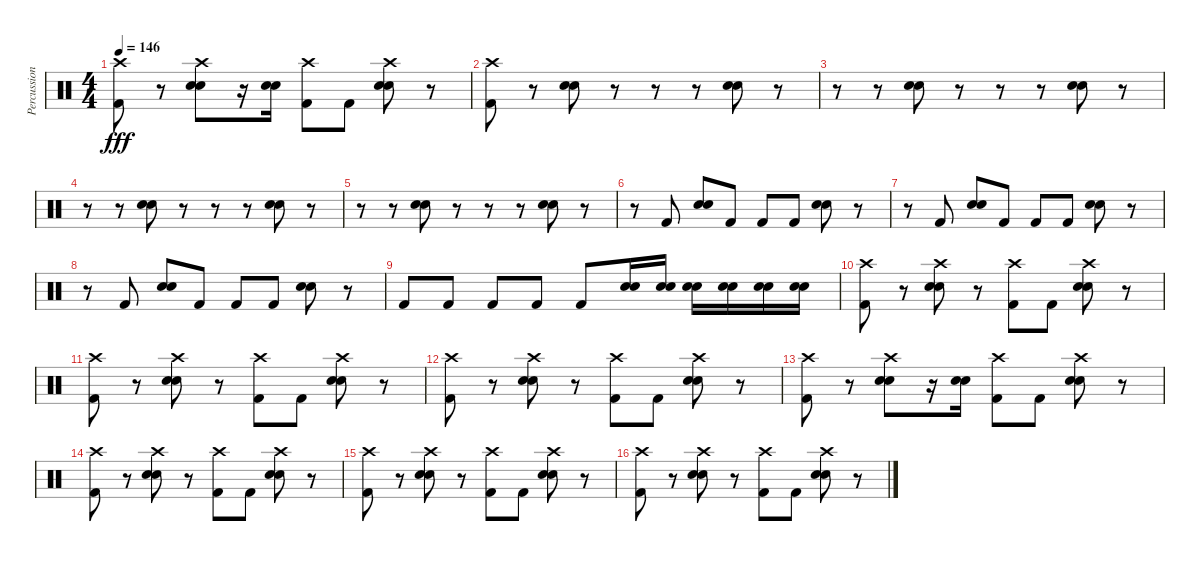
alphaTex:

\track ("Percussion" "Percussion") {instrument percussion}
\staff {score}
\articulation defaults
\ts (4 4)
\tempo 146
\clef neutral
\ks c
("Crash high (hit)" "Kick (hit) 2").8{dy fff} r.8 ("Crash high (hit)" "Electric Snare (hit)" "Snare (hit) 2").8 r.16 ("Electric Snare (hit)" "Snare (hit) 2").16 ("Crash high (hit)" "Kick (hit) 2").8 "Kick (hit) 2".8 ("Crash high (hit)" "Electric Snare (hit)" "Snare (hit) 2").8 r.8 |
("Kick (hit) 2" "Crash high (hit)").8 r.8 ("Electric Snare (hit)" "Snare (hit) 2").8 r.8 r.8 r.8 ("Electric Snare (hit)" "Snare (hit) 2").8 r.8 |
r.8 r.8 ("Electric Snare (hit)" "Snare (hit) 2").8 r.8 r.8 r.8 ("Electric Snare (hit)" "Snare (hit) 2").8 r.8 |
r.8 r.8 ("Electric Snare (hit)" "Snare (hit) 2").8 r.8 r.8 r.8 ("Electric Snare (hit)" "Snare (hit) 2").8 r.8 |
r.8 r.8 ("Electric Snare (hit)" "Snare (hit) 2").8 r.8 r.8 r.8 ("Electric Snare (hit)" "Snare (hit) 2").8 r.8 |
r.8 "Kick (hit) 2".8 ("Electric Snare (hit)" "Snare (hit) 2").8 "Kick (hit) 2".8 "Kick (hit) 2".8 "Kick (hit) 2".8 ("Electric Snare (hit)" "Snare (hit) 2").8 r.8 |
r.8 "Kick (hit) 2".8 ("Electric Snare (hit)" "Snare (hit) 2").8 "Kick (hit) 2".8 "Kick (hit) 2".8 "Kick (hit) 2".8 ("Electric Snare (hit)" "Snare (hit) 2").8 r.8 |
r.8 "Kick (hit) 2".8 ("Electric Snare (hit)" "Snare (hit) 2").8 "Kick (hit) 2".8 "Kick (hit) 2".8 "Kick (hit) 2".8 ("Electric Snare (hit)" "Snare (hit) 2").8 r.8 |
"Kick (hit) 2".8 "Kick (hit) 2".8 "Kick (hit) 2".8 "Kick (hit) 2".8 "Kick (hit) 2".8 ("Snare (hit) 2" "Electric Snare (hit)").16 ("Snare (hit) 2" "Electric Snare (hit)").16 ("Snare (hit) 2" "Electric Snare (hit)").16 ("Snare (hit) 2" "Electric Snare (hit)").16 ("Snare (hit) 2" "Electric Snare (hit)").16 ("Snare (hit) 2" "Electric Snare (hit)").16 |
("Crash high (hit)" "Kick (hit) 2").8 r.8 ("Crash high (hit)" "Electric Snare (hit)" "Snare (hit) 2").8 r.8 ("Crash high (hit)" "Kick (hit) 2").8 "Kick (hit) 2".8 ("Crash high (hit)" "Snare (hit) 2" "Electric Snare (hit)").8 r.8 |
("Crash high (hit)" "Kick (hit) 2").8 r.8 ("Crash high (hit)" "Electric Snare (hit)" "Snare (hit) 2").8 r.8 ("Crash high (hit)" "Kick (hit) 2").8 "Kick (hit) 2".8 ("Crash high (hit)" "Snare (hit) 2" "Electric Snare (hit)").8 r.8 |
("Crash high (hit)" "Kick (hit) 2").8 r.8 ("Crash high (hit)" "Electric Snare (hit)" "Snare (hit) 2").8 r.8 ("Crash high (hit)" "Kick (hit) 2").8 "Kick (hit) 2".8 ("Crash high (hit)" "Snare (hit) 2" "Electric Snare (hit)").8 r.8 |
("Crash high (hit)" "Kick (hit) 2").8 r.8 ("Crash high (hit)" "Electric Snare (hit)" "Snare (hit) 2").8 r.16 ("Electric Snare (hit)" "Snare (hit) 2").16 ("Crash high (hit)" "Kick (hit) 2").8 "Kick (hit) 2".8 ("Crash high (hit)" "Electric Snare (hit)" "Snare (hit) 2").8 r.8 |
("Crash high (hit)" "Kick (hit) 2").8 r.8 ("Crash high (hit)" "Electric Snare (hit)" "Snare (hit) 2").8 r.8 ("Crash high (hit)" "Kick (hit) 2").8 "Kick (hit) 2".8 ("Crash high (hit)" "Snare (hit) 2" "Electric Snare (hit)").8 r.8 |
("Crash high (hit)" "Kick (hit) 2").8 r.8 ("Crash high (hit)" "Electric Snare (hit)" "Snare (hit) 2").8 r.8 ("Crash high (hit)" "Kick (hit) 2").8 "Kick (hit) 2".8 ("Crash high (hit)" "Snare (hit) 2" "Electric Snare (hit)").8 r.8 |
("Crash high (hit)" "Kick (hit) 2").8 r.8 ("Crash high (hit)" "Electric Snare (hit)" "Snare (hit) 2").8 r.8 ("Crash high (hit)" "Kick (hit) 2").8 "Kick (hit) 2".8 ("Crash high (hit)" "Snare (hit) 2" "Electric Snare (hit)").8 r.8
